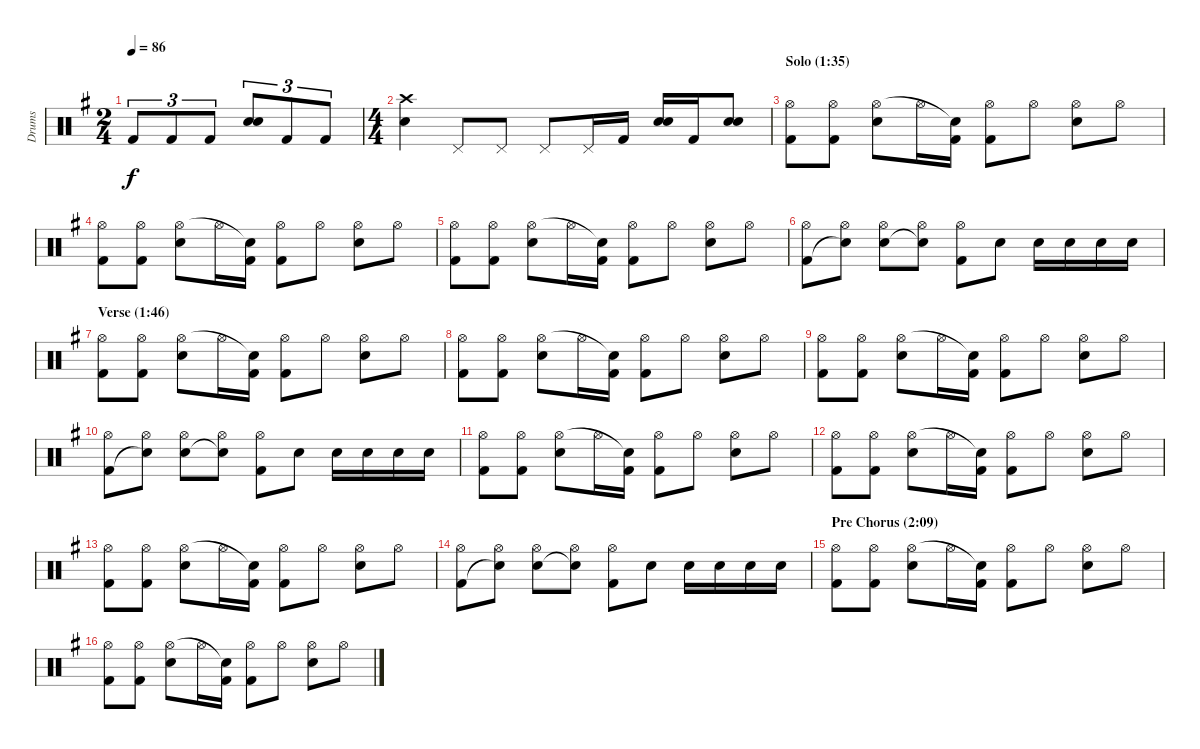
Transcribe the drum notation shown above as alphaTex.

\track ("Drums" "Drums") {instrument percussion}
\staff {score}
\articulation defaults
\ts (2 4)
\tempo 86
\clef neutral
\ks eminor "Kick (hit) 2".8{tu (3 2) dy f} "Kick (hit) 2".8{tu (3 2)} "Kick (hit) 2".8{tu (3 2)}
("Electric Snare (hit)" "Electric Snare (hit)").8{tu (3 2)} "Kick (hit) 2".8{tu (3 2)} "Kick (hit) 2".8{tu (3 2)} |
\ts (4 4)
("Electric Snare (hit)" "Crash high (hit)").4 "Pedal Hi-Hat (hit)".8 "Pedal Hi-Hat (hit)".8 "Pedal Hi-Hat (hit)".8 "Pedal Hi-Hat (hit)".16 "Kick (hit) 2".16 ("Electric Snare (hit)" "Electric Snare (hit)").16 "Kick (hit) 2".16 ("Electric Snare (hit)" "Electric Snare (hit)").8 |
\section ("" "Solo (1:35)")
("Kick (hit) 2" "Hi-Hat (open)").8 ("Kick (hit) 2" "Hi-Hat (open)").8 ("Electric Snare (hit)" "Hi-Hat (open)").8 "Hi-Hat (open)".16 ("Kick (hit) 2" "Snare (hit)"{t}).16 ("Kick (hit) 2" "Hi-Hat (open)").8 "Hi-Hat (open)".8 ("Electric Snare (hit)" "Hi-Hat (open)").8 "Hi-Hat (open)".8 |
("Kick (hit) 2" "Hi-Hat (open)").8 ("Kick (hit) 2" "Hi-Hat (open)").8 ("Electric Snare (hit)" "Hi-Hat (open)").8 "Hi-Hat (open)".16 ("Kick (hit) 2" "Snare (hit)"{t}).16 ("Kick (hit) 2" "Hi-Hat (open)").8 "Hi-Hat (open)".8 ("Electric Snare (hit)" "Hi-Hat (open)").8 "Hi-Hat (open)".8 |
("Kick (hit) 2" "Hi-Hat (open)").8 ("Kick (hit) 2" "Hi-Hat (open)").8 ("Electric Snare (hit)" "Hi-Hat (open)").8 "Hi-Hat (open)".16 ("Kick (hit) 2" "Snare (hit)"{t}).16 ("Kick (hit) 2" "Hi-Hat (open)").8 "Hi-Hat (open)".8 ("Electric Snare (hit)" "Hi-Hat (open)").8 "Hi-Hat (open)".8 |
("Kick (hit) 2" "Hi-Hat (open)").8 ("Snare (hit)"{t} "Hi-Hat (open)").8 ("Electric Snare (hit)" "Hi-Hat (open)").8 ("Snare (hit)"{t} "Hi-Hat (open)").8 ("Kick (hit) 2" "Hi-Hat (open)").8 "Electric Snare (hit)".8 "Electric Snare (hit)".16 "Electric Snare (hit)".16 "Electric Snare (hit)".16 "Electric Snare (hit)".16 |
\section ("" "Verse (1:46)")
("Kick (hit) 2" "Hi-Hat (open)").8 ("Kick (hit) 2" "Hi-Hat (open)").8 ("Electric Snare (hit)" "Hi-Hat (open)").8 "Hi-Hat (open)".16 ("Kick (hit) 2" "Snare (hit)"{t}).16 ("Kick (hit) 2" "Hi-Hat (open)").8 "Hi-Hat (open)".8 ("Electric Snare (hit)" "Hi-Hat (open)").8 "Hi-Hat (open)".8 |
("Kick (hit) 2" "Hi-Hat (open)").8 ("Kick (hit) 2" "Hi-Hat (open)").8 ("Electric Snare (hit)" "Hi-Hat (open)").8 "Hi-Hat (open)".16 ("Kick (hit) 2" "Snare (hit)"{t}).16 ("Kick (hit) 2" "Hi-Hat (open)").8 "Hi-Hat (open)".8 ("Electric Snare (hit)" "Hi-Hat (open)").8 "Hi-Hat (open)".8 |
("Kick (hit) 2" "Hi-Hat (open)").8 ("Kick (hit) 2" "Hi-Hat (open)").8 ("Electric Snare (hit)" "Hi-Hat (open)").8 "Hi-Hat (open)".16 ("Kick (hit) 2" "Snare (hit)"{t}).16 ("Kick (hit) 2" "Hi-Hat (open)").8 "Hi-Hat (open)".8 ("Electric Snare (hit)" "Hi-Hat (open)").8 "Hi-Hat (open)".8 |
("Kick (hit) 2" "Hi-Hat (open)").8 ("Snare (hit)"{t} "Hi-Hat (open)").8 ("Electric Snare (hit)" "Hi-Hat (open)").8 ("Snare (hit)"{t} "Hi-Hat (open)").8 ("Kick (hit) 2" "Hi-Hat (open)").8 "Electric Snare (hit)".8 "Electric Snare (hit)".16 "Electric Snare (hit)".16 "Electric Snare (hit)".16 "Electric Snare (hit)".16 |
("Kick (hit) 2" "Hi-Hat (open)").8 ("Kick (hit) 2" "Hi-Hat (open)").8 ("Electric Snare (hit)" "Hi-Hat (open)").8 "Hi-Hat (open)".16 ("Kick (hit) 2" "Snare (hit)"{t}).16 ("Kick (hit) 2" "Hi-Hat (open)").8 "Hi-Hat (open)".8 ("Electric Snare (hit)" "Hi-Hat (open)").8 "Hi-Hat (open)".8 |
("Kick (hit) 2" "Hi-Hat (open)").8 ("Kick (hit) 2" "Hi-Hat (open)").8 ("Electric Snare (hit)" "Hi-Hat (open)").8 "Hi-Hat (open)".16 ("Kick (hit) 2" "Snare (hit)"{t}).16 ("Kick (hit) 2" "Hi-Hat (open)").8 "Hi-Hat (open)".8 ("Electric Snare (hit)" "Hi-Hat (open)").8 "Hi-Hat (open)".8 |
("Kick (hit) 2" "Hi-Hat (open)").8 ("Kick (hit) 2" "Hi-Hat (open)").8 ("Electric Snare (hit)" "Hi-Hat (open)").8 "Hi-Hat (open)".16 ("Kick (hit) 2" "Snare (hit)"{t}).16 ("Kick (hit) 2" "Hi-Hat (open)").8 "Hi-Hat (open)".8 ("Electric Snare (hit)" "Hi-Hat (open)").8 "Hi-Hat (open)".8 |
("Kick (hit) 2" "Hi-Hat (open)").8 ("Snare (hit)"{t} "Hi-Hat (open)").8 ("Electric Snare (hit)" "Hi-Hat (open)").8 ("Snare (hit)"{t} "Hi-Hat (open)").8 ("Kick (hit) 2" "Hi-Hat (open)").8 "Electric Snare (hit)".8 "Electric Snare (hit)".16 "Electric Snare (hit)".16 "Electric Snare (hit)".16 "Electric Snare (hit)".16 |
\section ("" "Pre Chorus (2:09)")
("Kick (hit) 2" "Hi-Hat (open)").8 ("Kick (hit) 2" "Hi-Hat (open)").8 ("Electric Snare (hit)" "Hi-Hat (open)").8 "Hi-Hat (open)".16 ("Kick (hit) 2" "Snare (hit)"{t}).16 ("Kick (hit) 2" "Hi-Hat (open)").8 "Hi-Hat (open)".8 ("Electric Snare (hit)" "Hi-Hat (open)").8 "Hi-Hat (open)".8 |
("Kick (hit) 2" "Hi-Hat (open)").8 ("Kick (hit) 2" "Hi-Hat (open)").8 ("Electric Snare (hit)" "Hi-Hat (open)").8 "Hi-Hat (open)".16 ("Kick (hit) 2" "Snare (hit)"{t}).16 ("Kick (hit) 2" "Hi-Hat (open)").8 "Hi-Hat (open)".8 ("Electric Snare (hit)" "Hi-Hat (open)").8 "Hi-Hat (open)".8
